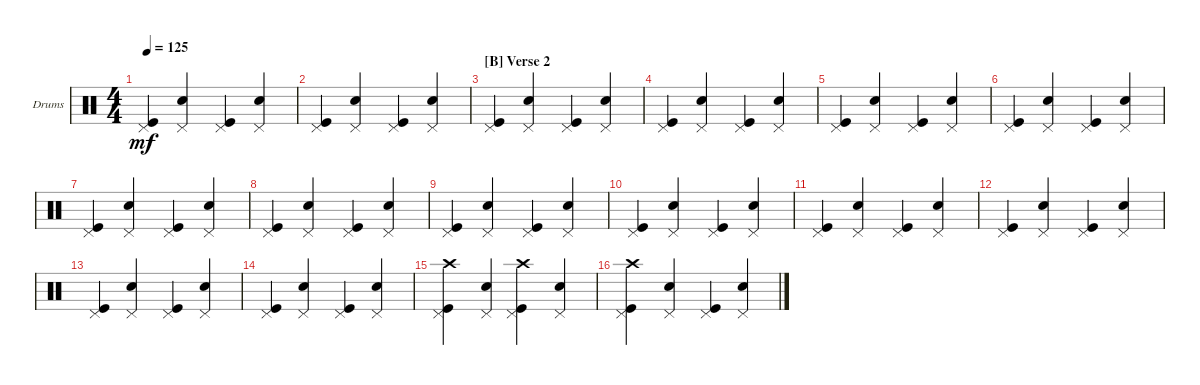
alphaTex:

\defaultSystemsLayout 4
\bracketExtendMode groupsimilarinstruments
\firstSystemTrackNameOrientation horizontal
\otherSystemsTrackNameOrientation horizontal
\track ("Drumkit" "Drums") {instrument percussion}
\staff {score}
\articulation defaults
\ts (4 4)
\tempo 125
\clef neutral
\ks c
("Kick (hit)" "Pedal Hi-Hat (hit)").4{dy mf} ("Snare (hit) 2" "Pedal Hi-Hat (hit)").4 ("Kick (hit)" "Pedal Hi-Hat (hit)").4 ("Snare (hit) 2" "Pedal Hi-Hat (hit)").4 |
("Kick (hit)" "Pedal Hi-Hat (hit)").4 ("Snare (hit) 2" "Pedal Hi-Hat (hit)").4 ("Kick (hit)" "Pedal Hi-Hat (hit)").4 ("Snare (hit) 2" "Pedal Hi-Hat (hit)").4 |
\section ("B" "Verse 2")
("Kick (hit)" "Pedal Hi-Hat (hit)").4 ("Snare (hit) 2" "Pedal Hi-Hat (hit)").4 ("Kick (hit)" "Pedal Hi-Hat (hit)").4 ("Snare (hit) 2" "Pedal Hi-Hat (hit)").4 |
("Kick (hit)" "Pedal Hi-Hat (hit)").4 ("Snare (hit) 2" "Pedal Hi-Hat (hit)").4 ("Kick (hit)" "Pedal Hi-Hat (hit)").4 ("Snare (hit) 2" "Pedal Hi-Hat (hit)").4 |
("Kick (hit)" "Pedal Hi-Hat (hit)").4 ("Snare (hit) 2" "Pedal Hi-Hat (hit)").4 ("Kick (hit)" "Pedal Hi-Hat (hit)").4 ("Snare (hit) 2" "Pedal Hi-Hat (hit)").4 |
("Kick (hit)" "Pedal Hi-Hat (hit)").4 ("Snare (hit) 2" "Pedal Hi-Hat (hit)").4 ("Kick (hit)" "Pedal Hi-Hat (hit)").4 ("Snare (hit) 2" "Pedal Hi-Hat (hit)").4 |
("Kick (hit)" "Pedal Hi-Hat (hit)").4 ("Snare (hit) 2" "Pedal Hi-Hat (hit)").4 ("Kick (hit)" "Pedal Hi-Hat (hit)").4 ("Snare (hit) 2" "Pedal Hi-Hat (hit)").4 |
("Kick (hit)" "Pedal Hi-Hat (hit)").4 ("Snare (hit) 2" "Pedal Hi-Hat (hit)").4 ("Kick (hit)" "Pedal Hi-Hat (hit)").4 ("Snare (hit) 2" "Pedal Hi-Hat (hit)").4 |
("Kick (hit)" "Pedal Hi-Hat (hit)").4 ("Snare (hit) 2" "Pedal Hi-Hat (hit)").4 ("Kick (hit)" "Pedal Hi-Hat (hit)").4 ("Snare (hit) 2" "Pedal Hi-Hat (hit)").4 |
("Kick (hit)" "Pedal Hi-Hat (hit)").4 ("Snare (hit) 2" "Pedal Hi-Hat (hit)").4 ("Kick (hit)" "Pedal Hi-Hat (hit)").4 ("Snare (hit) 2" "Pedal Hi-Hat (hit)").4 |
("Kick (hit)" "Pedal Hi-Hat (hit)").4 ("Snare (hit) 2" "Pedal Hi-Hat (hit)").4 ("Kick (hit)" "Pedal Hi-Hat (hit)").4 ("Snare (hit) 2" "Pedal Hi-Hat (hit)").4 |
("Kick (hit)" "Pedal Hi-Hat (hit)").4 ("Snare (hit) 2" "Pedal Hi-Hat (hit)").4 ("Kick (hit)" "Pedal Hi-Hat (hit)").4 ("Snare (hit) 2" "Pedal Hi-Hat (hit)").4 |
("Kick (hit)" "Pedal Hi-Hat (hit)").4 ("Snare (hit) 2" "Pedal Hi-Hat (hit)").4 ("Kick (hit)" "Pedal Hi-Hat (hit)").4 ("Snare (hit) 2" "Pedal Hi-Hat (hit)").4 |
("Kick (hit)" "Pedal Hi-Hat (hit)").4 ("Snare (hit) 2" "Pedal Hi-Hat (hit)").4 ("Kick (hit)" "Pedal Hi-Hat (hit)").4 ("Snare (hit) 2" "Pedal Hi-Hat (hit)").4 |
("Kick (hit)" "Crash high (hit)" "Pedal Hi-Hat (hit)").4 ("Snare (hit) 2" "Pedal Hi-Hat (hit)").4 ("Kick (hit)" "Crash high (hit)" "Pedal Hi-Hat (hit)").4 ("Snare (hit) 2" "Pedal Hi-Hat (hit)").4 |
("Kick (hit)" "Crash high (hit)" "Pedal Hi-Hat (hit)").4 ("Snare (hit) 2" "Pedal Hi-Hat (hit)").4 ("Kick (hit)" "Pedal Hi-Hat (hit)").4 ("Snare (hit) 2" "Pedal Hi-Hat (hit)").4
